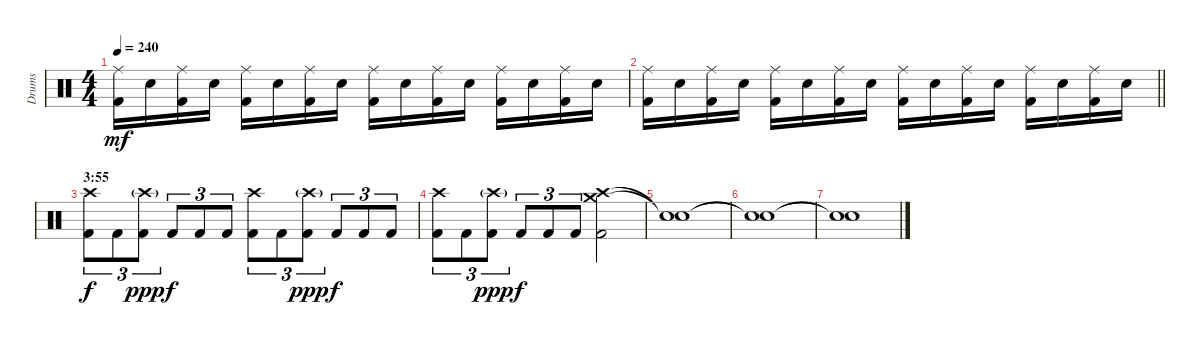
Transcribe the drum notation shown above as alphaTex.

\track ("Drums" "Drums") {instrument percussion}
\staff {score}
\articulation defaults
\ts (4 4)
\tempo 240
\clef neutral
\ks c
("Ride (middle)" "Kick (hit) 2").16{dy mf} "Electric Snare (hit)".16 ("Ride (middle)" "Kick (hit) 2").16 "Electric Snare (hit)".16 ("Ride (middle)" "Kick (hit) 2").16 "Electric Snare (hit)".16 ("Ride (middle)" "Kick (hit) 2").16 "Electric Snare (hit)".16 ("Ride (middle)" "Kick (hit) 2").16 "Electric Snare (hit)".16 ("Ride (middle)" "Kick (hit) 2").16 "Electric Snare (hit)".16 ("Ride (middle)" "Kick (hit) 2").16 "Electric Snare (hit)".16 ("Ride (middle)" "Kick (hit) 2").16 "Electric Snare (hit)".16 |
\barLineRight lightlight
("Ride (middle)" "Kick (hit) 2").16 "Electric Snare (hit)".16 ("Ride (middle)" "Kick (hit) 2").16 "Electric Snare (hit)".16 ("Ride (middle)" "Kick (hit) 2").16 "Electric Snare (hit)".16 ("Ride (middle)" "Kick (hit) 2").16 "Electric Snare (hit)".16 ("Ride (middle)" "Kick (hit) 2").16 "Electric Snare (hit)".16 ("Ride (middle)" "Kick (hit) 2").16 "Electric Snare (hit)".16 ("Ride (middle)" "Kick (hit) 2").16 "Electric Snare (hit)".16 ("Ride (middle)" "Kick (hit) 2").16 "Electric Snare (hit)".16 |
\section ("" "3:55")
("Crash high (hit)" "Kick (hit) 2").8{tu (3 2) dy f} "Kick (hit) 2".8{tu (3 2)} ("Crash high (hit)"{g} "Kick (hit) 2").8{tu (3 2) dy ppp} "Kick (hit) 2".8{tu (3 2) dy f} "Kick (hit) 2".8{tu (3 2)} "Kick (hit) 2".8{tu (3 2)} ("Crash high (hit)" "Kick (hit) 2").8{tu (3 2)} "Kick (hit) 2".8{tu (3 2)} ("Crash high (hit)"{g} "Kick (hit) 2").8{tu (3 2) dy ppp} "Kick (hit) 2".8{tu (3 2) dy f} "Kick (hit) 2".8{tu (3 2)} "Kick (hit) 2".8{tu (3 2)} |
("Crash high (hit)" "Kick (hit) 2").8{tu (3 2)} "Kick (hit) 2".8{tu (3 2)} ("Crash high (hit)"{g} "Kick (hit) 2").8{tu (3 2) dy ppp} "Kick (hit) 2".8{tu (3 2) dy f} "Kick (hit) 2".8{tu (3 2)} "Kick (hit) 2".8{tu (3 2)} ("Crash medium (hit)" "Crash high (hit)" "Kick (hit) 2").2 |
("Snare (hit)"{t} "Snare (hit)"{t}).1 |
("Snare (hit)"{t} "Snare (hit)"{t}).1 |
("Snare (hit)"{t} "Snare (hit)"{t}).1
